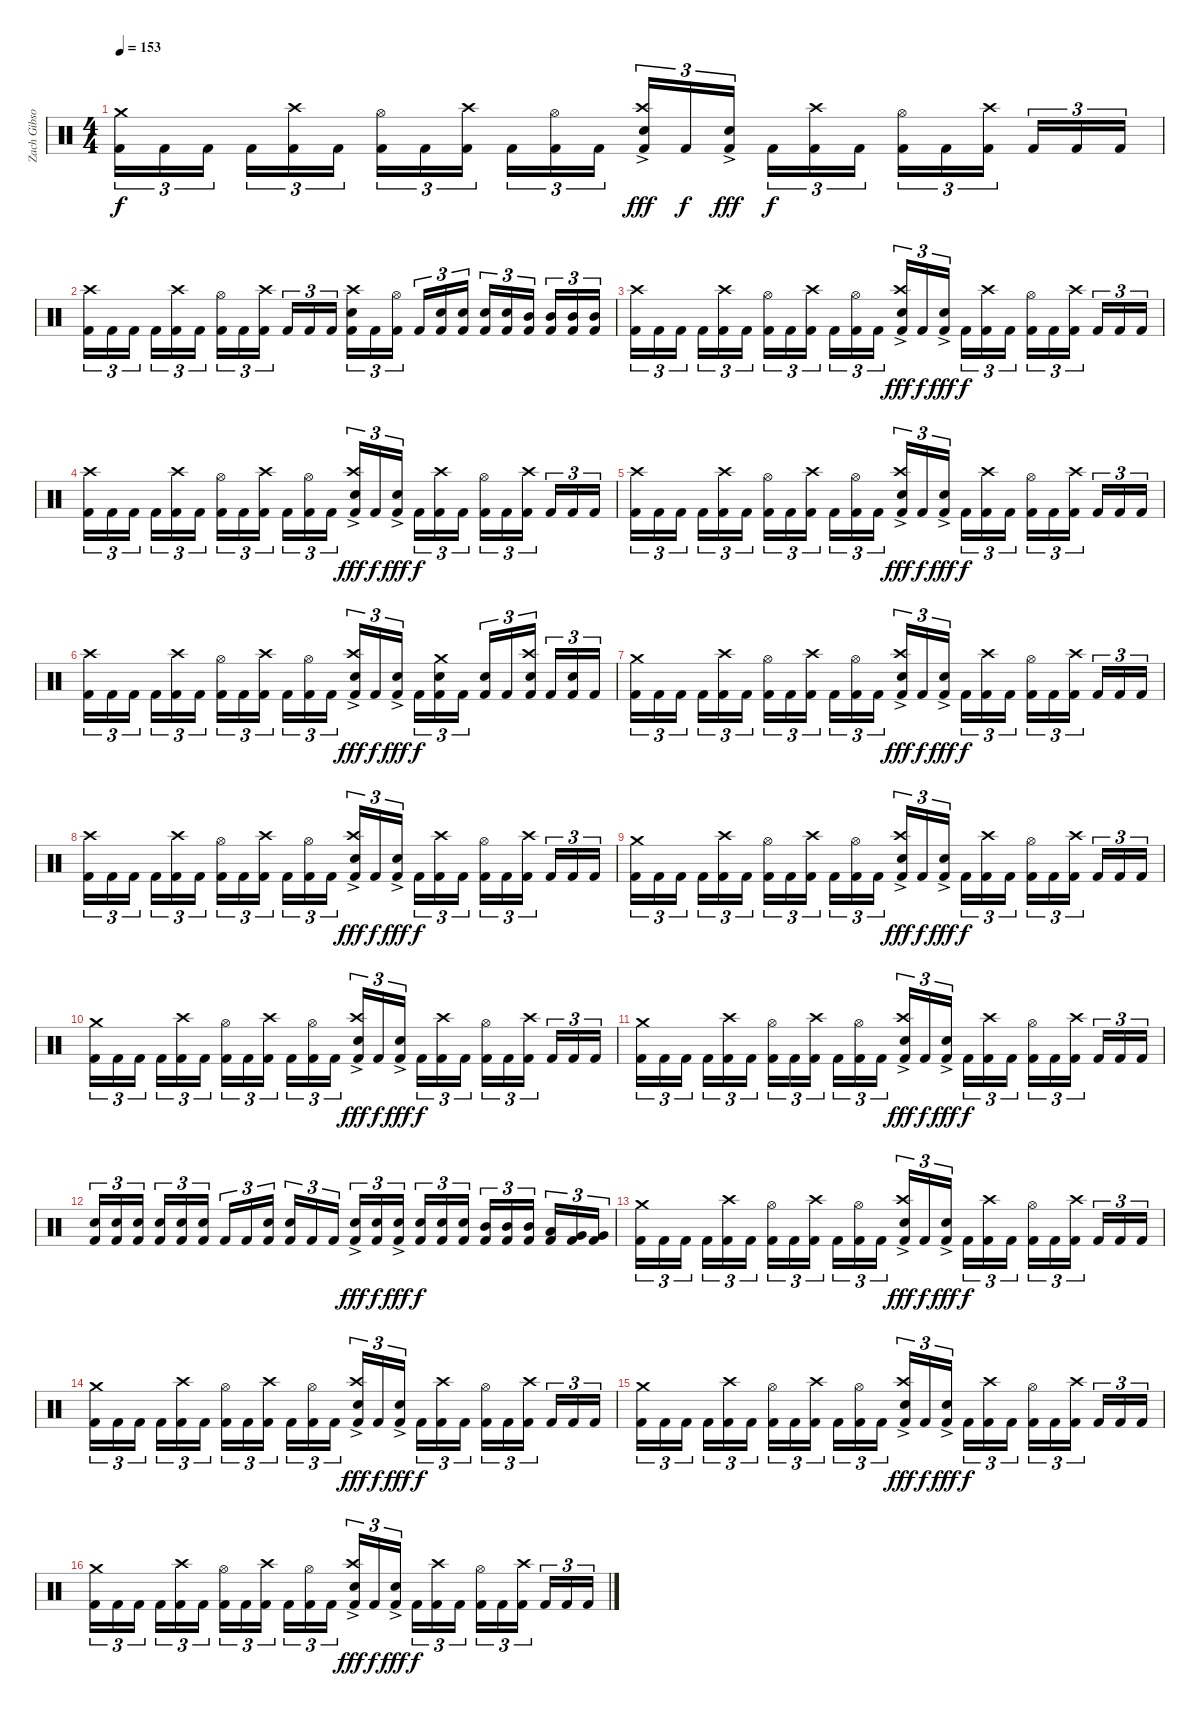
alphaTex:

\track ("Zach Gibson (Drums)" "Zach Gibso") {instrument percussion}
\staff {score}
\articulation defaults
\ts (4 4)
\tempo 153
\clef neutral
\ks c
("Crash medium (hit)" "Kick (hit) 2").16{tu (3 2) dy f} "Kick (hit) 2".16{tu (3 2)} "Kick (hit) 2".16{tu (3 2)} "Kick (hit) 2".16{tu (3 2)} ("Crash high (hit)" "Kick (hit) 2").16{tu (3 2)} "Kick (hit) 2".16{tu (3 2)} ("Hi-Hat (open)" "Kick (hit) 2").16{tu (3 2)} "Kick (hit) 2".16{tu (3 2)} ("Crash high (hit)" "Kick (hit) 2").16{tu (3 2)} "Kick (hit) 2".16{tu (3 2)} ("Hi-Hat (open)" "Kick (hit) 2").16{tu (3 2)} "Kick (hit) 2".16{tu (3 2)} ("Crash high (hit)" "Snare (hit) 2"{ac} "Kick (hit) 2").16{tu (3 2) dy fff} "Kick (hit) 2".16{tu (3 2) dy f} ("Snare (hit) 2"{ac} "Kick (hit) 2").16{tu (3 2) dy fff} "Kick (hit) 2".16{tu (3 2) dy f} ("Crash high (hit)" "Kick (hit) 2").16{tu (3 2)} "Kick (hit) 2".16{tu (3 2)} ("Hi-Hat (open)" "Kick (hit) 2").16{tu (3 2)} "Kick (hit) 2".16{tu (3 2)} ("Crash high (hit)" "Kick (hit) 2").16{tu (3 2)} "Kick (hit) 2".16{tu (3 2)} "Kick (hit) 2".16{tu (3 2)} "Kick (hit) 2".16{tu (3 2)} |
("Crash high (hit)" "Kick (hit) 2").16{tu (3 2)} "Kick (hit) 2".16{tu (3 2)} "Kick (hit) 2".16{tu (3 2)} "Kick (hit) 2".16{tu (3 2)} ("Crash high (hit)" "Kick (hit) 2").16{tu (3 2)} "Kick (hit) 2".16{tu (3 2)} ("Hi-Hat (open)" "Kick (hit) 2").16{tu (3 2)} "Kick (hit) 2".16{tu (3 2)} ("Crash high (hit)" "Kick (hit) 2").16{tu (3 2)} "Kick (hit) 2".16{tu (3 2)} "Kick (hit) 2".16{tu (3 2)} "Kick (hit) 2".16{tu (3 2)} ("Crash high (hit)" "Snare (hit) 2" "Kick (hit) 2").16{tu (3 2)} "Kick (hit) 2".16{tu (3 2)} ("Hi-Hat (open)" "Kick (hit) 2").16{tu (3 2)} "Kick (hit) 2".16{tu (3 2)} ("Snare (hit) 2" "Kick (hit) 2").16{tu (3 2)} ("Snare (hit) 2" "Kick (hit) 2").16{tu (3 2)} ("Snare (hit) 2" "Kick (hit) 2").16{tu (3 2)} ("Snare (hit) 2" "Kick (hit) 2").16{tu (3 2)} ("Mid Tom (hit)" "Kick (hit) 2").16{tu (3 2)} ("Mid Tom (hit)" "Kick (hit) 2").16{tu (3 2)} ("Mid Tom (hit)" "Kick (hit) 2").16{tu (3 2)} ("Mid Tom (hit)" "Kick (hit) 2").16{tu (3 2)} |
("Crash high (hit)" "Kick (hit) 2").16{tu (3 2)} "Kick (hit) 2".16{tu (3 2)} "Kick (hit) 2".16{tu (3 2)} "Kick (hit) 2".16{tu (3 2)} ("Crash high (hit)" "Kick (hit) 2").16{tu (3 2)} "Kick (hit) 2".16{tu (3 2)} ("Hi-Hat (open)" "Kick (hit) 2").16{tu (3 2)} "Kick (hit) 2".16{tu (3 2)} ("Crash high (hit)" "Kick (hit) 2").16{tu (3 2)} "Kick (hit) 2".16{tu (3 2)} ("Hi-Hat (open)" "Kick (hit) 2").16{tu (3 2)} "Kick (hit) 2".16{tu (3 2)} ("Crash high (hit)" "Snare (hit) 2"{ac} "Kick (hit) 2").16{tu (3 2) dy fff} "Kick (hit) 2".16{tu (3 2) dy f} ("Snare (hit) 2"{ac} "Kick (hit) 2").16{tu (3 2) dy fff} "Kick (hit) 2".16{tu (3 2) dy f} ("Crash high (hit)" "Kick (hit) 2").16{tu (3 2)} "Kick (hit) 2".16{tu (3 2)} ("Hi-Hat (open)" "Kick (hit) 2").16{tu (3 2)} "Kick (hit) 2".16{tu (3 2)} ("Crash high (hit)" "Kick (hit) 2").16{tu (3 2)} "Kick (hit) 2".16{tu (3 2)} "Kick (hit) 2".16{tu (3 2)} "Kick (hit) 2".16{tu (3 2)} |
("Crash high (hit)" "Kick (hit) 2").16{tu (3 2)} "Kick (hit) 2".16{tu (3 2)} "Kick (hit) 2".16{tu (3 2)} "Kick (hit) 2".16{tu (3 2)} ("Crash high (hit)" "Kick (hit) 2").16{tu (3 2)} "Kick (hit) 2".16{tu (3 2)} ("Hi-Hat (open)" "Kick (hit) 2").16{tu (3 2)} "Kick (hit) 2".16{tu (3 2)} ("Crash high (hit)" "Kick (hit) 2").16{tu (3 2)} "Kick (hit) 2".16{tu (3 2)} ("Hi-Hat (open)" "Kick (hit) 2").16{tu (3 2)} "Kick (hit) 2".16{tu (3 2)} ("Crash high (hit)" "Snare (hit) 2"{ac} "Kick (hit) 2").16{tu (3 2) dy fff} "Kick (hit) 2".16{tu (3 2) dy f} ("Snare (hit) 2"{ac} "Kick (hit) 2").16{tu (3 2) dy fff} "Kick (hit) 2".16{tu (3 2) dy f} ("Crash high (hit)" "Kick (hit) 2").16{tu (3 2)} "Kick (hit) 2".16{tu (3 2)} ("Hi-Hat (open)" "Kick (hit) 2").16{tu (3 2)} "Kick (hit) 2".16{tu (3 2)} ("Crash high (hit)" "Kick (hit) 2").16{tu (3 2)} "Kick (hit) 2".16{tu (3 2)} "Kick (hit) 2".16{tu (3 2)} "Kick (hit) 2".16{tu (3 2)} |
("Crash high (hit)" "Kick (hit) 2").16{tu (3 2) volume 15} "Kick (hit) 2".16{tu (3 2)} "Kick (hit) 2".16{tu (3 2)} "Kick (hit) 2".16{tu (3 2)} ("Crash high (hit)" "Kick (hit) 2").16{tu (3 2)} "Kick (hit) 2".16{tu (3 2)} ("Hi-Hat (open)" "Kick (hit) 2").16{tu (3 2)} "Kick (hit) 2".16{tu (3 2)} ("Crash high (hit)" "Kick (hit) 2").16{tu (3 2)} "Kick (hit) 2".16{tu (3 2)} ("Hi-Hat (open)" "Kick (hit) 2").16{tu (3 2)} "Kick (hit) 2".16{tu (3 2)} ("Crash high (hit)" "Snare (hit) 2"{ac} "Kick (hit) 2").16{tu (3 2) dy fff} "Kick (hit) 2".16{tu (3 2) dy f} ("Snare (hit) 2"{ac} "Kick (hit) 2").16{tu (3 2) dy fff} "Kick (hit) 2".16{tu (3 2) dy f} ("Crash high (hit)" "Kick (hit) 2").16{tu (3 2)} "Kick (hit) 2".16{tu (3 2)} ("Hi-Hat (open)" "Kick (hit) 2").16{tu (3 2)} "Kick (hit) 2".16{tu (3 2)} ("Crash high (hit)" "Kick (hit) 2").16{tu (3 2)} "Kick (hit) 2".16{tu (3 2)} "Kick (hit) 2".16{tu (3 2)} "Kick (hit) 2".16{tu (3 2)} |
("Crash high (hit)" "Kick (hit) 2").16{tu (3 2) volume 14} "Kick (hit) 2".16{tu (3 2)} "Kick (hit) 2".16{tu (3 2)} "Kick (hit) 2".16{tu (3 2)} ("Crash high (hit)" "Kick (hit) 2").16{tu (3 2)} "Kick (hit) 2".16{tu (3 2)} ("Hi-Hat (open)" "Kick (hit) 2").16{tu (3 2)} "Kick (hit) 2".16{tu (3 2)} ("Crash high (hit)" "Kick (hit) 2").16{tu (3 2)} "Kick (hit) 2".16{tu (3 2)} ("Hi-Hat (open)" "Kick (hit) 2").16{tu (3 2)} "Kick (hit) 2".16{tu (3 2)} ("Crash high (hit)" "Snare (hit) 2"{ac} "Kick (hit) 2").16{tu (3 2) dy fff} "Kick (hit) 2".16{tu (3 2) dy f} ("Snare (hit) 2"{ac} "Kick (hit) 2").16{tu (3 2) dy fff} "Kick (hit) 2".16{tu (3 2) dy f} ("Crash medium (hit)" "Snare (hit) 2" "Kick (hit) 2").16{tu (3 2)} "Kick (hit) 2".16{tu (3 2)} ("Snare (hit) 2" "Kick (hit) 2").16{tu (3 2)} "Kick (hit) 2".16{tu (3 2)} ("Crash high (hit)" "Snare (hit) 2" "Kick (hit) 2").16{tu (3 2)} "Kick (hit) 2".16{tu (3 2)} ("Snare (hit) 2" "Kick (hit) 2").16{tu (3 2)} "Kick (hit) 2".16{tu (3 2)} |
("Crash medium (hit)" "Kick (hit) 2").16{tu (3 2) volume 13} "Kick (hit) 2".16{tu (3 2)} "Kick (hit) 2".16{tu (3 2)} "Kick (hit) 2".16{tu (3 2)} ("Crash high (hit)" "Kick (hit) 2").16{tu (3 2)} "Kick (hit) 2".16{tu (3 2)} ("Hi-Hat (open)" "Kick (hit) 2").16{tu (3 2)} "Kick (hit) 2".16{tu (3 2)} ("Crash high (hit)" "Kick (hit) 2").16{tu (3 2)} "Kick (hit) 2".16{tu (3 2)} ("Hi-Hat (open)" "Kick (hit) 2").16{tu (3 2)} "Kick (hit) 2".16{tu (3 2)} ("Crash high (hit)" "Snare (hit) 2"{ac} "Kick (hit) 2").16{tu (3 2) dy fff} "Kick (hit) 2".16{tu (3 2) dy f} ("Snare (hit) 2"{ac} "Kick (hit) 2").16{tu (3 2) dy fff} "Kick (hit) 2".16{tu (3 2) dy f} ("Crash high (hit)" "Kick (hit) 2").16{tu (3 2)} "Kick (hit) 2".16{tu (3 2)} ("Hi-Hat (open)" "Kick (hit) 2").16{tu (3 2)} "Kick (hit) 2".16{tu (3 2)} ("Crash high (hit)" "Kick (hit) 2").16{tu (3 2)} "Kick (hit) 2".16{tu (3 2)} "Kick (hit) 2".16{tu (3 2)} "Kick (hit) 2".16{tu (3 2)} |
("Crash high (hit)" "Kick (hit) 2").16{tu (3 2) volume 12} "Kick (hit) 2".16{tu (3 2)} "Kick (hit) 2".16{tu (3 2)} "Kick (hit) 2".16{tu (3 2)} ("Crash high (hit)" "Kick (hit) 2").16{tu (3 2)} "Kick (hit) 2".16{tu (3 2)} ("Hi-Hat (open)" "Kick (hit) 2").16{tu (3 2)} "Kick (hit) 2".16{tu (3 2)} ("Crash high (hit)" "Kick (hit) 2").16{tu (3 2)} "Kick (hit) 2".16{tu (3 2)} ("Hi-Hat (open)" "Kick (hit) 2").16{tu (3 2)} "Kick (hit) 2".16{tu (3 2)} ("Crash high (hit)" "Snare (hit) 2"{ac} "Kick (hit) 2").16{tu (3 2) dy fff} "Kick (hit) 2".16{tu (3 2) dy f} ("Snare (hit) 2"{ac} "Kick (hit) 2").16{tu (3 2) dy fff} "Kick (hit) 2".16{tu (3 2) dy f} ("Crash high (hit)" "Kick (hit) 2").16{tu (3 2)} "Kick (hit) 2".16{tu (3 2)} ("Hi-Hat (open)" "Kick (hit) 2").16{tu (3 2)} "Kick (hit) 2".16{tu (3 2)} ("Crash high (hit)" "Kick (hit) 2").16{tu (3 2)} "Kick (hit) 2".16{tu (3 2)} "Kick (hit) 2".16{tu (3 2)} "Kick (hit) 2".16{tu (3 2)} |
("Crash medium (hit)" "Kick (hit) 2").16{tu (3 2) volume 12} "Kick (hit) 2".16{tu (3 2)} "Kick (hit) 2".16{tu (3 2)} "Kick (hit) 2".16{tu (3 2)} ("Crash high (hit)" "Kick (hit) 2").16{tu (3 2)} "Kick (hit) 2".16{tu (3 2)} ("Hi-Hat (open)" "Kick (hit) 2").16{tu (3 2)} "Kick (hit) 2".16{tu (3 2)} ("Crash high (hit)" "Kick (hit) 2").16{tu (3 2)} "Kick (hit) 2".16{tu (3 2)} ("Hi-Hat (open)" "Kick (hit) 2").16{tu (3 2)} "Kick (hit) 2".16{tu (3 2)} ("Crash high (hit)" "Snare (hit) 2"{ac} "Kick (hit) 2").16{tu (3 2) dy fff} "Kick (hit) 2".16{tu (3 2) dy f} ("Snare (hit) 2"{ac} "Kick (hit) 2").16{tu (3 2) dy fff} "Kick (hit) 2".16{tu (3 2) dy f} ("Crash high (hit)" "Kick (hit) 2").16{tu (3 2)} "Kick (hit) 2".16{tu (3 2)} ("Hi-Hat (open)" "Kick (hit) 2").16{tu (3 2)} "Kick (hit) 2".16{tu (3 2)} ("Crash high (hit)" "Kick (hit) 2").16{tu (3 2)} "Kick (hit) 2".16{tu (3 2)} "Kick (hit) 2".16{tu (3 2)} "Kick (hit) 2".16{tu (3 2)} |
("Crash medium (hit)" "Kick (hit) 2").16{tu (3 2) volume 11} "Kick (hit) 2".16{tu (3 2)} "Kick (hit) 2".16{tu (3 2)} "Kick (hit) 2".16{tu (3 2)} ("Crash high (hit)" "Kick (hit) 2").16{tu (3 2)} "Kick (hit) 2".16{tu (3 2)} ("Hi-Hat (open)" "Kick (hit) 2").16{tu (3 2)} "Kick (hit) 2".16{tu (3 2)} ("Crash high (hit)" "Kick (hit) 2").16{tu (3 2)} "Kick (hit) 2".16{tu (3 2)} ("Hi-Hat (open)" "Kick (hit) 2").16{tu (3 2)} "Kick (hit) 2".16{tu (3 2)} ("Crash high (hit)" "Snare (hit) 2"{ac} "Kick (hit) 2").16{tu (3 2) dy fff} "Kick (hit) 2".16{tu (3 2) dy f} ("Snare (hit) 2"{ac} "Kick (hit) 2").16{tu (3 2) dy fff} "Kick (hit) 2".16{tu (3 2) dy f} ("Crash high (hit)" "Kick (hit) 2").16{tu (3 2)} "Kick (hit) 2".16{tu (3 2)} ("Hi-Hat (open)" "Kick (hit) 2").16{tu (3 2)} "Kick (hit) 2".16{tu (3 2)} ("Crash high (hit)" "Kick (hit) 2").16{tu (3 2)} "Kick (hit) 2".16{tu (3 2)} "Kick (hit) 2".16{tu (3 2)} "Kick (hit) 2".16{tu (3 2)} |
("Crash medium (hit)" "Kick (hit) 2").16{tu (3 2) volume 10} "Kick (hit) 2".16{tu (3 2)} "Kick (hit) 2".16{tu (3 2)} "Kick (hit) 2".16{tu (3 2)} ("Crash high (hit)" "Kick (hit) 2").16{tu (3 2)} "Kick (hit) 2".16{tu (3 2)} ("Hi-Hat (open)" "Kick (hit) 2").16{tu (3 2)} "Kick (hit) 2".16{tu (3 2)} ("Crash high (hit)" "Kick (hit) 2").16{tu (3 2)} "Kick (hit) 2".16{tu (3 2)} ("Hi-Hat (open)" "Kick (hit) 2").16{tu (3 2)} "Kick (hit) 2".16{tu (3 2)} ("Crash high (hit)" "Snare (hit) 2"{ac} "Kick (hit) 2").16{tu (3 2) dy fff} "Kick (hit) 2".16{tu (3 2) dy f} ("Snare (hit) 2"{ac} "Kick (hit) 2").16{tu (3 2) dy fff} "Kick (hit) 2".16{tu (3 2) dy f} ("Crash high (hit)" "Kick (hit) 2").16{tu (3 2)} "Kick (hit) 2".16{tu (3 2)} ("Hi-Hat (open)" "Kick (hit) 2").16{tu (3 2)} "Kick (hit) 2".16{tu (3 2)} ("Crash high (hit)" "Kick (hit) 2").16{tu (3 2)} "Kick (hit) 2".16{tu (3 2)} "Kick (hit) 2".16{tu (3 2)} "Kick (hit) 2".16{tu (3 2)} |
("Snare (hit) 2" "Kick (hit) 2").16{tu (3 2) volume 9} ("Snare (hit) 2" "Kick (hit) 2").16{tu (3 2)} ("Snare (hit) 2" "Kick (hit) 2").16{tu (3 2)} ("Snare (hit) 2" "Kick (hit) 2").16{tu (3 2)} ("Snare (hit) 2" "Kick (hit) 2").16{tu (3 2)} ("Snare (hit) 2" "Kick (hit) 2").16{tu (3 2)} "Kick (hit) 2".16{tu (3 2)} "Kick (hit) 2".16{tu (3 2)} ("Snare (hit) 2" "Kick (hit) 2").16{tu (3 2)} ("Snare (hit) 2" "Kick (hit) 2").16{tu (3 2)} "Kick (hit) 2".16{tu (3 2)} "Kick (hit) 2".16{tu (3 2)} ("Snare (hit) 2"{ac} "Kick (hit) 2").16{tu (3 2) dy fff} ("Snare (hit) 2" "Kick (hit) 2").16{tu (3 2) dy f} ("Snare (hit) 2"{ac} "Kick (hit) 2").16{tu (3 2) dy fff} ("Snare (hit) 2" "Kick (hit) 2").16{tu (3 2) dy f} ("Snare (hit) 2" "Kick (hit) 2").16{tu (3 2)} ("Snare (hit) 2" "Kick (hit) 2").16{tu (3 2)} ("Mid Tom (hit)" "Kick (hit) 2").16{tu (3 2)} ("Mid Tom (hit)" "Kick (hit) 2").16{tu (3 2)} ("Mid Tom (hit)" "Kick (hit) 2").16{tu (3 2)} ("Low Tom (hit)" "Kick (hit) 2").16{tu (3 2)} ("Very Low Tom (hit)" "Kick (hit) 2").16{tu (3 2)} ("Very Low Tom (hit)" "Kick (hit) 2").16{tu (3 2)} |
("Crash medium (hit)" "Kick (hit) 2").16{tu (3 2) volume 8} "Kick (hit) 2".16{tu (3 2)} "Kick (hit) 2".16{tu (3 2)} "Kick (hit) 2".16{tu (3 2)} ("Crash high (hit)" "Kick (hit) 2").16{tu (3 2)} "Kick (hit) 2".16{tu (3 2)} ("Hi-Hat (open)" "Kick (hit) 2").16{tu (3 2)} "Kick (hit) 2".16{tu (3 2)} ("Crash high (hit)" "Kick (hit) 2").16{tu (3 2)} "Kick (hit) 2".16{tu (3 2)} ("Hi-Hat (open)" "Kick (hit) 2").16{tu (3 2)} "Kick (hit) 2".16{tu (3 2)} ("Crash high (hit)" "Snare (hit) 2"{ac} "Kick (hit) 2").16{tu (3 2) dy fff} "Kick (hit) 2".16{tu (3 2) dy f} ("Snare (hit) 2"{ac} "Kick (hit) 2").16{tu (3 2) dy fff} "Kick (hit) 2".16{tu (3 2) dy f} ("Crash high (hit)" "Kick (hit) 2").16{tu (3 2)} "Kick (hit) 2".16{tu (3 2)} ("Hi-Hat (open)" "Kick (hit) 2").16{tu (3 2)} "Kick (hit) 2".16{tu (3 2)} ("Crash high (hit)" "Kick (hit) 2").16{tu (3 2)} "Kick (hit) 2".16{tu (3 2)} "Kick (hit) 2".16{tu (3 2)} "Kick (hit) 2".16{tu (3 2)} |
("Crash medium (hit)" "Kick (hit) 2").16{tu (3 2) volume 7} "Kick (hit) 2".16{tu (3 2)} "Kick (hit) 2".16{tu (3 2)} "Kick (hit) 2".16{tu (3 2)} ("Crash high (hit)" "Kick (hit) 2").16{tu (3 2)} "Kick (hit) 2".16{tu (3 2)} ("Hi-Hat (open)" "Kick (hit) 2").16{tu (3 2)} "Kick (hit) 2".16{tu (3 2)} ("Crash high (hit)" "Kick (hit) 2").16{tu (3 2)} "Kick (hit) 2".16{tu (3 2)} ("Hi-Hat (open)" "Kick (hit) 2").16{tu (3 2)} "Kick (hit) 2".16{tu (3 2)} ("Crash high (hit)" "Snare (hit) 2"{ac} "Kick (hit) 2").16{tu (3 2) dy fff} "Kick (hit) 2".16{tu (3 2) dy f} ("Snare (hit) 2"{ac} "Kick (hit) 2").16{tu (3 2) dy fff} "Kick (hit) 2".16{tu (3 2) dy f} ("Crash high (hit)" "Kick (hit) 2").16{tu (3 2)} "Kick (hit) 2".16{tu (3 2)} ("Hi-Hat (open)" "Kick (hit) 2").16{tu (3 2)} "Kick (hit) 2".16{tu (3 2)} ("Crash high (hit)" "Kick (hit) 2").16{tu (3 2)} "Kick (hit) 2".16{tu (3 2)} "Kick (hit) 2".16{tu (3 2)} "Kick (hit) 2".16{tu (3 2)} |
("Crash medium (hit)" "Kick (hit) 2").16{tu (3 2) volume 6} "Kick (hit) 2".16{tu (3 2)} "Kick (hit) 2".16{tu (3 2)} "Kick (hit) 2".16{tu (3 2)} ("Crash high (hit)" "Kick (hit) 2").16{tu (3 2)} "Kick (hit) 2".16{tu (3 2)} ("Hi-Hat (open)" "Kick (hit) 2").16{tu (3 2)} "Kick (hit) 2".16{tu (3 2)} ("Crash high (hit)" "Kick (hit) 2").16{tu (3 2)} "Kick (hit) 2".16{tu (3 2)} ("Hi-Hat (open)" "Kick (hit) 2").16{tu (3 2)} "Kick (hit) 2".16{tu (3 2)} ("Crash high (hit)" "Snare (hit) 2"{ac} "Kick (hit) 2").16{tu (3 2) dy fff volume 5} "Kick (hit) 2".16{tu (3 2) dy f} ("Snare (hit) 2"{ac} "Kick (hit) 2").16{tu (3 2) dy fff} "Kick (hit) 2".16{tu (3 2) dy f} ("Crash high (hit)" "Kick (hit) 2").16{tu (3 2)} "Kick (hit) 2".16{tu (3 2)} ("Hi-Hat (open)" "Kick (hit) 2").16{tu (3 2)} "Kick (hit) 2".16{tu (3 2)} ("Crash high (hit)" "Kick (hit) 2").16{tu (3 2)} "Kick (hit) 2".16{tu (3 2)} "Kick (hit) 2".16{tu (3 2)} "Kick (hit) 2".16{tu (3 2)} |
("Crash medium (hit)" "Kick (hit) 2").16{tu (3 2) volume 3} "Kick (hit) 2".16{tu (3 2)} "Kick (hit) 2".16{tu (3 2)} "Kick (hit) 2".16{tu (3 2)} ("Crash high (hit)" "Kick (hit) 2").16{tu (3 2)} "Kick (hit) 2".16{tu (3 2)} ("Hi-Hat (open)" "Kick (hit) 2").16{tu (3 2)} "Kick (hit) 2".16{tu (3 2)} ("Crash high (hit)" "Kick (hit) 2").16{tu (3 2)} "Kick (hit) 2".16{tu (3 2)} ("Hi-Hat (open)" "Kick (hit) 2").16{tu (3 2)} "Kick (hit) 2".16{tu (3 2)} ("Crash high (hit)" "Snare (hit) 2"{ac} "Kick (hit) 2").16{tu (3 2) dy fff volume 2} "Kick (hit) 2".16{tu (3 2) dy f} ("Snare (hit) 2"{ac} "Kick (hit) 2").16{tu (3 2) dy fff} "Kick (hit) 2".16{tu (3 2) dy f} ("Crash high (hit)" "Kick (hit) 2").16{tu (3 2)} "Kick (hit) 2".16{tu (3 2)} ("Hi-Hat (open)" "Kick (hit) 2").16{tu (3 2)} "Kick (hit) 2".16{tu (3 2)} ("Crash high (hit)" "Kick (hit) 2").16{tu (3 2)} "Kick (hit) 2".16{tu (3 2)} "Kick (hit) 2".16{tu (3 2)} "Kick (hit) 2".16{tu (3 2)}
